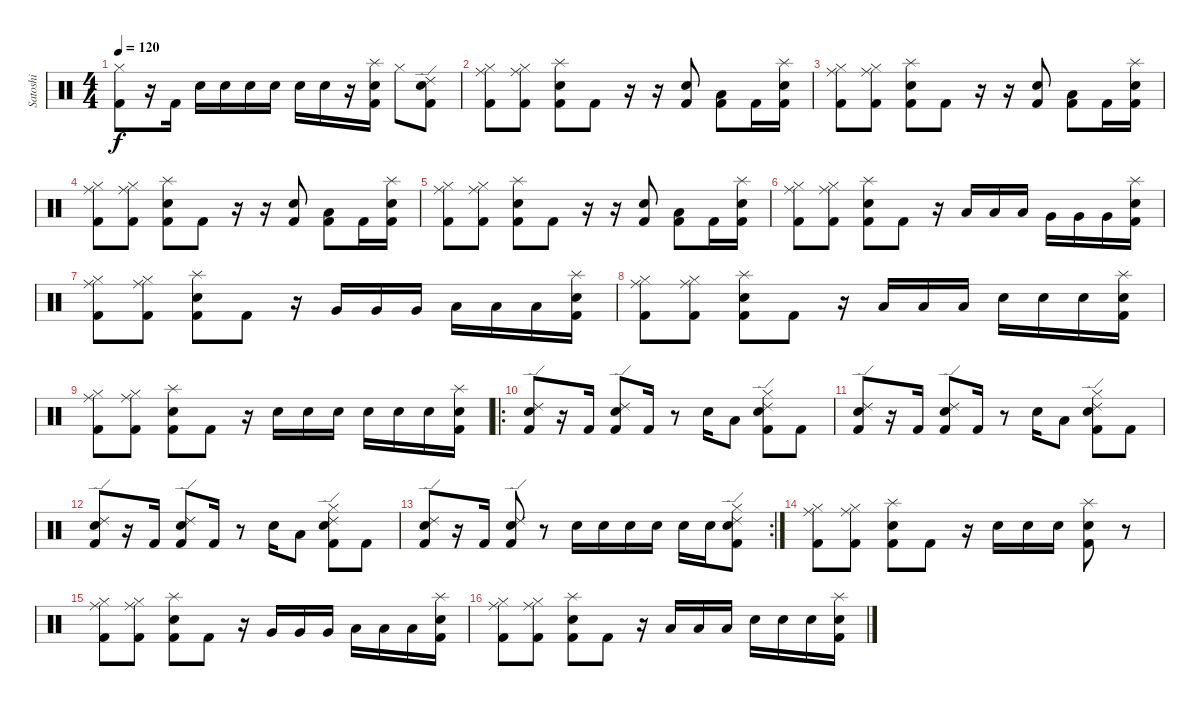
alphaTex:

\track ("Satoshi" "Satoshi") {instrument percussion}
\staff {score}
\articulation defaults
\ts (4 4)
\tempo 120
\clef neutral
\ks c
("Hi-Hat (closed)" "Kick (hit) 2").8{dy f} r.16 "Kick (hit) 2".16 "Electric Snare (hit)".16 "Electric Snare (hit)".16 "Electric Snare (hit)".16 "Electric Snare (hit)".16 "Electric Snare (hit)".16 "Electric Snare (hit)".16 r.16 ("Splash (hit)" "Electric Snare (hit)" "Kick (hit) 2").16 "Hi-Hat (closed)".8 ("Ride (edge) 2" "Electric Snare (hit)" "Kick (hit) 2").8 |
("Ride (middle)" "Hi-Hat (closed)" "Kick (hit) 2").8 ("Ride (middle)" "Hi-Hat (closed)" "Kick (hit) 2").8 ("Splash (hit)" "Electric Snare (hit)" "Kick (hit) 2").8 "Kick (hit) 2".8 r.16 r.16 ("Electric Snare (hit)" "Kick (hit) 2").8 ("Low Floor Tom (hit)" "Kick (hit) 2").8 "Kick (hit) 2".16 ("Splash (hit)" "Electric Snare (hit)" "Kick (hit) 2").16 |
("Ride (middle)" "Hi-Hat (closed)" "Kick (hit) 2").8 ("Ride (middle)" "Hi-Hat (closed)" "Kick (hit) 2").8 ("Splash (hit)" "Electric Snare (hit)" "Kick (hit) 2").8 "Kick (hit) 2".8 r.16 r.16 ("Electric Snare (hit)" "Kick (hit) 2").8 ("Low Floor Tom (hit)" "Kick (hit) 2").8 "Kick (hit) 2".16 ("Splash (hit)" "Electric Snare (hit)" "Kick (hit) 2").16 |
("Ride (middle)" "Hi-Hat (closed)" "Kick (hit) 2").8 ("Ride (middle)" "Hi-Hat (closed)" "Kick (hit) 2").8 ("Splash (hit)" "Electric Snare (hit)" "Kick (hit) 2").8 "Kick (hit) 2".8 r.16 r.16 ("Electric Snare (hit)" "Kick (hit) 2").8 ("Low Floor Tom (hit)" "Kick (hit) 2").8 "Kick (hit) 2".16 ("Splash (hit)" "Electric Snare (hit)" "Kick (hit) 2").16 |
("Ride (middle)" "Hi-Hat (closed)" "Kick (hit) 2").8 ("Ride (middle)" "Hi-Hat (closed)" "Kick (hit) 2").8 ("Splash (hit)" "Electric Snare (hit)" "Kick (hit) 2").8 "Kick (hit) 2".8 r.16 r.16 ("Electric Snare (hit)" "Kick (hit) 2").8 ("Low Floor Tom (hit)" "Kick (hit) 2").8 "Kick (hit) 2".16 ("Splash (hit)" "Electric Snare (hit)" "Kick (hit) 2").16 |
("Ride (middle)" "Hi-Hat (closed)" "Kick (hit) 2").8 ("Ride (middle)" "Hi-Hat (closed)" "Kick (hit) 2").8 ("Splash (hit)" "Electric Snare (hit)" "Kick (hit) 2").8 "Kick (hit) 2".8 r.16 "Low Tom (hit)".16 "Low Tom (hit)".16 "Low Tom (hit)".16 "Very Low Tom (hit)".16 "Very Low Tom (hit)".16 "Very Low Tom (hit)".16 ("Splash (hit)" "Electric Snare (hit)" "Kick (hit) 2").16 |
("Ride (middle)" "Hi-Hat (closed)" "Kick (hit) 2").8 ("Ride (middle)" "Hi-Hat (closed)" "Kick (hit) 2").8 ("Splash (hit)" "Electric Snare (hit)" "Kick (hit) 2").8 "Kick (hit) 2".8 r.16 "Very Low Tom (hit)".16 "Very Low Tom (hit)".16 "Very Low Tom (hit)".16 "Low Floor Tom (hit)".16 "Low Floor Tom (hit)".16 "Low Floor Tom (hit)".16 ("Splash (hit)" "Electric Snare (hit)" "Kick (hit) 2").16 |
("Ride (middle)" "Hi-Hat (closed)" "Kick (hit) 2").8 ("Ride (middle)" "Hi-Hat (closed)" "Kick (hit) 2").8 ("Splash (hit)" "Electric Snare (hit)" "Kick (hit) 2").8 "Kick (hit) 2".8 r.16 "Low Floor Tom (hit)".16 "Low Floor Tom (hit)".16 "Low Floor Tom (hit)".16 "Electric Snare (hit)".16 "Electric Snare (hit)".16 "Electric Snare (hit)".16 ("Splash (hit)" "Electric Snare (hit)" "Kick (hit) 2").16 |
("Ride (middle)" "Hi-Hat (closed)" "Kick (hit) 2").8 ("Ride (middle)" "Hi-Hat (closed)" "Kick (hit) 2").8 ("Splash (hit)" "Electric Snare (hit)" "Kick (hit) 2").8 "Kick (hit) 2".8 r.16 "Electric Snare (hit)".16 "Electric Snare (hit)".16 "Electric Snare (hit)".16 "Electric Snare (hit)".16 "Electric Snare (hit)".16 "Electric Snare (hit)".16 ("Splash (hit)" "Electric Snare (hit)" "Kick (hit) 2").16 |
\ro
("Ride (edge) 2" "Electric Snare (hit)" "Kick (hit) 2").8 r.16 "Kick (hit) 2".16 ("Ride (edge) 2" "Electric Snare (hit)" "Kick (hit) 2").8 "Kick (hit) 2".16 r.8 "Electric Snare (hit)".16 "Low Floor Tom (hit)".8 ("Ride (edge) 2" "Hi-Hat (closed)" "Electric Snare (hit)" "Kick (hit) 2").8 "Kick (hit) 2".8 |
("Ride (edge) 2" "Electric Snare (hit)" "Kick (hit) 2").8 r.16 "Kick (hit) 2".16 ("Ride (edge) 2" "Electric Snare (hit)" "Kick (hit) 2").8 "Kick (hit) 2".16 r.8 "Electric Snare (hit)".16 "Low Floor Tom (hit)".8 ("Ride (edge) 2" "Hi-Hat (closed)" "Electric Snare (hit)" "Kick (hit) 2").8 "Kick (hit) 2".8 |
("Ride (edge) 2" "Electric Snare (hit)" "Kick (hit) 2").8 r.16 "Kick (hit) 2".16 ("Ride (edge) 2" "Electric Snare (hit)" "Kick (hit) 2").8 "Kick (hit) 2".16 r.8 "Electric Snare (hit)".16 "Low Floor Tom (hit)".8 ("Ride (edge) 2" "Hi-Hat (closed)" "Electric Snare (hit)" "Kick (hit) 2").8 "Kick (hit) 2".8 |
\rc 2
("Ride (edge) 2" "Electric Snare (hit)" "Kick (hit) 2").8 r.16 "Kick (hit) 2".16 ("Ride (edge) 2" "Electric Snare (hit)" "Kick (hit) 2").8 r.8 "Electric Snare (hit)".16 "Electric Snare (hit)".16 "Electric Snare (hit)".16 "Electric Snare (hit)".16 "Electric Snare (hit)".16 "Electric Snare (hit)".16 ("Ride (edge) 2" "Hi-Hat (closed)" "Electric Snare (hit)" "Kick (hit) 2").8 |
("Ride (middle)" "Hi-Hat (closed)" "Kick (hit) 2").8 ("Ride (middle)" "Hi-Hat (closed)" "Kick (hit) 2").8 ("Splash (hit)" "Electric Snare (hit)" "Kick (hit) 2").8 "Kick (hit) 2".8 r.16 "Electric Snare (hit)".16 "Electric Snare (hit)".16 "Electric Snare (hit)".16 ("Splash (hit)" "Electric Snare (hit)" "Kick (hit) 2").8 r.8 |
("Ride (middle)" "Hi-Hat (closed)" "Kick (hit) 2").8 ("Ride (middle)" "Hi-Hat (closed)" "Kick (hit) 2").8 ("Splash (hit)" "Electric Snare (hit)" "Kick (hit) 2").8 "Kick (hit) 2".8 r.16 "Very Low Tom (hit)".16 "Very Low Tom (hit)".16 "Very Low Tom (hit)".16 "Low Floor Tom (hit)".16 "Low Floor Tom (hit)".16 "Low Floor Tom (hit)".16 ("Splash (hit)" "Electric Snare (hit)" "Kick (hit) 2").16 |
("Ride (middle)" "Hi-Hat (closed)" "Kick (hit) 2").8 ("Ride (middle)" "Hi-Hat (closed)" "Kick (hit) 2").8 ("Splash (hit)" "Electric Snare (hit)" "Kick (hit) 2").8 "Kick (hit) 2".8 r.16 "Low Floor Tom (hit)".16 "Low Floor Tom (hit)".16 "Low Floor Tom (hit)".16 "Electric Snare (hit)".16 "Electric Snare (hit)".16 "Electric Snare (hit)".16 ("Splash (hit)" "Electric Snare (hit)" "Kick (hit) 2").16
